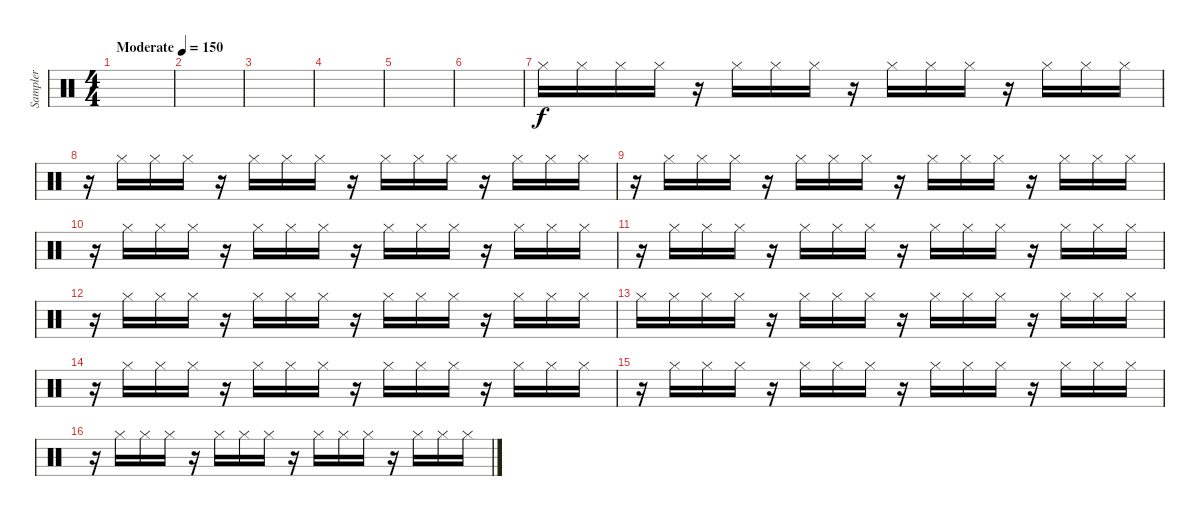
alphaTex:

\track ("Sampler" "Sampler") {instrument percussion}
\staff {score}
\articulation defaults
\ts (4 4)
\tempo (150 "Moderate")
\clef neutral
\ks c
|
|
|
|
|
|
"Hi-Hat (closed)".16 "Hi-Hat (closed)".16 "Hi-Hat (closed)".16 "Hi-Hat (closed)".16 r.16 "Hi-Hat (closed)".16 "Hi-Hat (closed)".16 "Hi-Hat (closed)".16 r.16 "Hi-Hat (closed)".16 "Hi-Hat (closed)".16 "Hi-Hat (closed)".16 r.16 "Hi-Hat (closed)".16 "Hi-Hat (closed)".16 "Hi-Hat (closed)".16 |
r.16 "Hi-Hat (closed)".16 "Hi-Hat (closed)".16 "Hi-Hat (closed)".16 r.16 "Hi-Hat (closed)".16 "Hi-Hat (closed)".16 "Hi-Hat (closed)".16 r.16 "Hi-Hat (closed)".16 "Hi-Hat (closed)".16 "Hi-Hat (closed)".16 r.16 "Hi-Hat (closed)".16 "Hi-Hat (closed)".16 "Hi-Hat (closed)".16 |
r.16 "Hi-Hat (closed)".16 "Hi-Hat (closed)".16 "Hi-Hat (closed)".16 r.16 "Hi-Hat (closed)".16 "Hi-Hat (closed)".16 "Hi-Hat (closed)".16 r.16 "Hi-Hat (closed)".16 "Hi-Hat (closed)".16 "Hi-Hat (closed)".16 r.16 "Hi-Hat (closed)".16 "Hi-Hat (closed)".16 "Hi-Hat (closed)".16 |
r.16 "Hi-Hat (closed)".16 "Hi-Hat (closed)".16 "Hi-Hat (closed)".16 r.16 "Hi-Hat (closed)".16 "Hi-Hat (closed)".16 "Hi-Hat (closed)".16 r.16 "Hi-Hat (closed)".16 "Hi-Hat (closed)".16 "Hi-Hat (closed)".16 r.16 "Hi-Hat (closed)".16 "Hi-Hat (closed)".16 "Hi-Hat (closed)".16 |
r.16 "Hi-Hat (closed)".16 "Hi-Hat (closed)".16 "Hi-Hat (closed)".16 r.16 "Hi-Hat (closed)".16 "Hi-Hat (closed)".16 "Hi-Hat (closed)".16 r.16 "Hi-Hat (closed)".16 "Hi-Hat (closed)".16 "Hi-Hat (closed)".16 r.16 "Hi-Hat (closed)".16 "Hi-Hat (closed)".16 "Hi-Hat (closed)".16 |
r.16 "Hi-Hat (closed)".16 "Hi-Hat (closed)".16 "Hi-Hat (closed)".16 r.16 "Hi-Hat (closed)".16 "Hi-Hat (closed)".16 "Hi-Hat (closed)".16 r.16 "Hi-Hat (closed)".16 "Hi-Hat (closed)".16 "Hi-Hat (closed)".16 r.16 "Hi-Hat (closed)".16 "Hi-Hat (closed)".16 "Hi-Hat (closed)".16 |
"Hi-Hat (closed)".16 "Hi-Hat (closed)".16 "Hi-Hat (closed)".16 "Hi-Hat (closed)".16 r.16 "Hi-Hat (closed)".16 "Hi-Hat (closed)".16 "Hi-Hat (closed)".16 r.16 "Hi-Hat (closed)".16 "Hi-Hat (closed)".16 "Hi-Hat (closed)".16 r.16 "Hi-Hat (closed)".16 "Hi-Hat (closed)".16 "Hi-Hat (closed)".16 |
r.16 "Hi-Hat (closed)".16 "Hi-Hat (closed)".16 "Hi-Hat (closed)".16 r.16 "Hi-Hat (closed)".16 "Hi-Hat (closed)".16 "Hi-Hat (closed)".16 r.16 "Hi-Hat (closed)".16 "Hi-Hat (closed)".16 "Hi-Hat (closed)".16 r.16 "Hi-Hat (closed)".16 "Hi-Hat (closed)".16 "Hi-Hat (closed)".16 |
r.16 "Hi-Hat (closed)".16 "Hi-Hat (closed)".16 "Hi-Hat (closed)".16 r.16 "Hi-Hat (closed)".16 "Hi-Hat (closed)".16 "Hi-Hat (closed)".16 r.16 "Hi-Hat (closed)".16 "Hi-Hat (closed)".16 "Hi-Hat (closed)".16 r.16 "Hi-Hat (closed)".16 "Hi-Hat (closed)".16 "Hi-Hat (closed)".16 |
r.16 "Hi-Hat (closed)".16 "Hi-Hat (closed)".16 "Hi-Hat (closed)".16 r.16 "Hi-Hat (closed)".16 "Hi-Hat (closed)".16 "Hi-Hat (closed)".16 r.16 "Hi-Hat (closed)".16 "Hi-Hat (closed)".16 "Hi-Hat (closed)".16 r.16 "Hi-Hat (closed)".16 "Hi-Hat (closed)".16 "Hi-Hat (closed)".16
